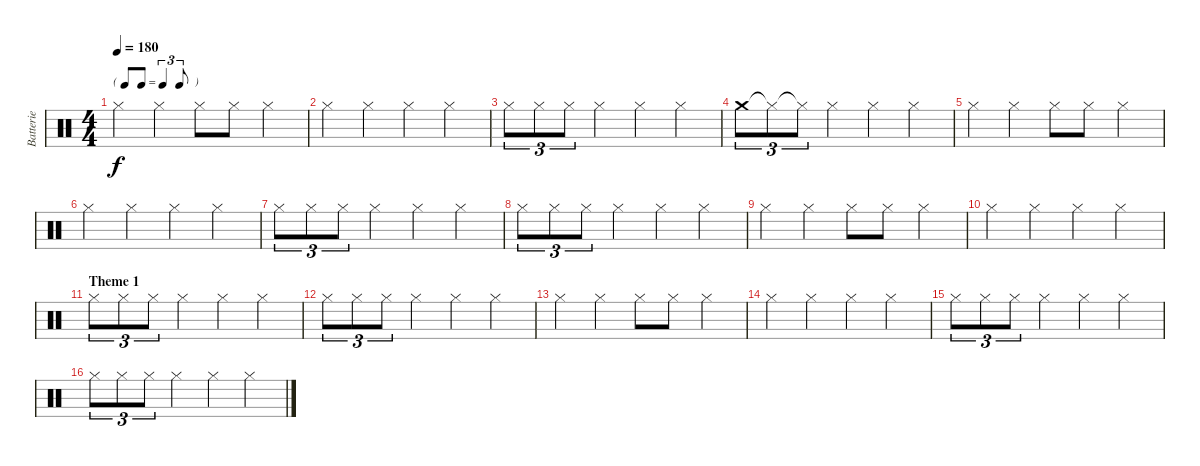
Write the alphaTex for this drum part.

\track ("Batterie" "Batterie") {instrument percussion}
\staff {score}
\articulation defaults
\ts (4 4)
\tf triplet8th
\tempo 180
\clef neutral
\ks c "Hi-Hat (closed)".4{dy f} "Hi-Hat (closed)".4 "Hi-Hat (closed)".8 "Hi-Hat (closed)".8 "Hi-Hat (closed)".4
|
"Hi-Hat (closed)".4 "Hi-Hat (closed)".4 "Hi-Hat (closed)".4 "Hi-Hat (closed)".4 |
"Hi-Hat (closed)".8{tu (3 2)} "Hi-Hat (closed)".8{tu (3 2)} "Hi-Hat (closed)".8{tu (3 2)} "Hi-Hat (closed)".4 "Hi-Hat (closed)".4 "Hi-Hat (closed)".4 |
"Crash medium (hit)".8{tu (3 2)} "Hi-Hat (closed)"{t}.8{tu (3 2)} "Hi-Hat (closed)"{t}.8{tu (3 2)} "Hi-Hat (closed)".4 "Hi-Hat (closed)".4 "Hi-Hat (closed)".4 |
"Hi-Hat (closed)".4 "Hi-Hat (closed)".4 "Hi-Hat (closed)".8 "Hi-Hat (closed)".8 "Hi-Hat (closed)".4 |
"Hi-Hat (closed)".4 "Hi-Hat (closed)".4 "Hi-Hat (closed)".4 "Hi-Hat (closed)".4 |
"Hi-Hat (closed)".8{tu (3 2)} "Hi-Hat (closed)".8{tu (3 2)} "Hi-Hat (closed)".8{tu (3 2)} "Hi-Hat (closed)".4 "Hi-Hat (closed)".4 "Hi-Hat (closed)".4 |
"Hi-Hat (closed)".8{tu (3 2)} "Hi-Hat (closed)".8{tu (3 2)} "Hi-Hat (closed)".8{tu (3 2)} "Hi-Hat (closed)".4 "Hi-Hat (closed)".4 "Hi-Hat (closed)".4 |
"Hi-Hat (closed)".4 "Hi-Hat (closed)".4 "Hi-Hat (closed)".8 "Hi-Hat (closed)".8 "Hi-Hat (closed)".4 |
"Hi-Hat (closed)".4 "Hi-Hat (closed)".4 "Hi-Hat (closed)".4 "Hi-Hat (closed)".4 |
\section ("" "Theme 1")
"Hi-Hat (closed)".8{tu (3 2)} "Hi-Hat (closed)".8{tu (3 2)} "Hi-Hat (closed)".8{tu (3 2)} "Hi-Hat (closed)".4 "Hi-Hat (closed)".4 "Hi-Hat (closed)".4 |
"Hi-Hat (closed)".8{tu (3 2)} "Hi-Hat (closed)".8{tu (3 2)} "Hi-Hat (closed)".8{tu (3 2)} "Hi-Hat (closed)".4 "Hi-Hat (closed)".4 "Hi-Hat (closed)".4 |
"Hi-Hat (closed)".4 "Hi-Hat (closed)".4 "Hi-Hat (closed)".8 "Hi-Hat (closed)".8 "Hi-Hat (closed)".4 |
"Hi-Hat (closed)".4 "Hi-Hat (closed)".4 "Hi-Hat (closed)".4 "Hi-Hat (closed)".4 |
"Hi-Hat (closed)".8{tu (3 2)} "Hi-Hat (closed)".8{tu (3 2)} "Hi-Hat (closed)".8{tu (3 2)} "Hi-Hat (closed)".4 "Hi-Hat (closed)".4 "Hi-Hat (closed)".4 |
"Hi-Hat (closed)".8{tu (3 2)} "Hi-Hat (closed)".8{tu (3 2)} "Hi-Hat (closed)".8{tu (3 2)} "Hi-Hat (closed)".4 "Hi-Hat (closed)".4 "Hi-Hat (closed)".4
